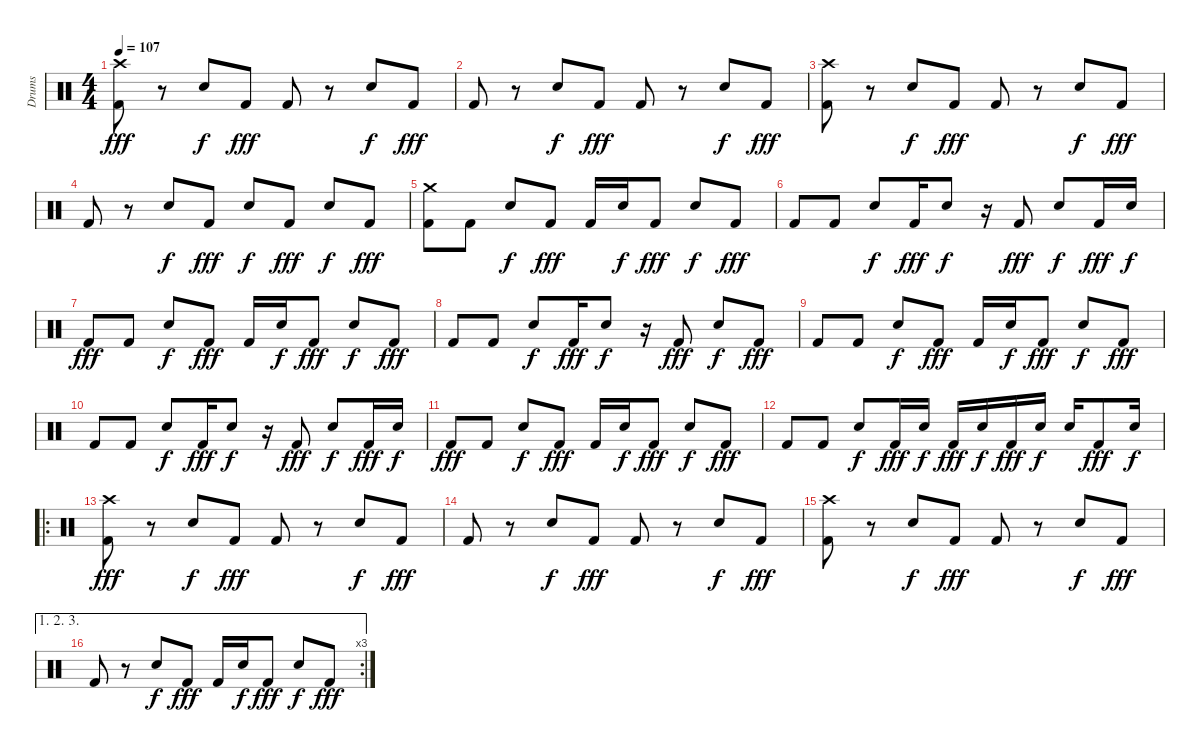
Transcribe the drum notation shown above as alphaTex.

\track ("Drums" "Drums") {instrument percussion}
\staff {score}
\articulation defaults
\ts (4 4)
\tempo 107
\clef neutral
\ks c
("Crash high (hit)" "Kick (hit) 2").8{dy fff} r.8 "Snare (hit) 2".8{dy f} "Kick (hit) 2".8{dy fff} "Kick (hit) 2".8 r.8 "Snare (hit) 2".8{dy f} "Kick (hit) 2".8{dy fff} |
"Kick (hit) 2".8 r.8 "Snare (hit) 2".8{dy f} "Kick (hit) 2".8{dy fff} "Kick (hit) 2".8 r.8 "Snare (hit) 2".8{dy f} "Kick (hit) 2".8{dy fff} |
("Crash high (hit)" "Kick (hit) 2").8 r.8 "Snare (hit) 2".8{dy f} "Kick (hit) 2".8{dy fff} "Kick (hit) 2".8 r.8 "Snare (hit) 2".8{dy f} "Kick (hit) 2".8{dy fff} |
"Kick (hit) 2".8 r.8 "Snare (hit) 2".8{dy f} "Kick (hit) 2".8{dy fff} "Snare (hit) 2".8{dy f} "Kick (hit) 2".8{dy fff} "Snare (hit) 2".8{dy f} "Kick (hit) 2".8{dy fff} |
("Crash medium (hit)" "Kick (hit) 2").8 "Kick (hit) 2".8 "Snare (hit) 2".8{dy f} "Kick (hit) 2".8{dy fff} "Kick (hit) 2".16 "Snare (hit) 2".16{dy f} "Kick (hit) 2".8{dy fff} "Snare (hit) 2".8{dy f} "Kick (hit) 2".8{dy fff} |
"Kick (hit) 2".8 "Kick (hit) 2".8 "Snare (hit) 2".8{dy f} "Kick (hit) 2".16{dy fff} "Snare (hit) 2".8{dy f} r.16 "Kick (hit) 2".8{dy fff} "Snare (hit) 2".8{dy f} "Kick (hit) 2".16{dy fff} "Snare (hit) 2".16{dy f} |
"Kick (hit) 2".8{dy fff} "Kick (hit) 2".8 "Snare (hit) 2".8{dy f} "Kick (hit) 2".8{dy fff} "Kick (hit) 2".16 "Snare (hit) 2".16{dy f} "Kick (hit) 2".8{dy fff} "Snare (hit) 2".8{dy f} "Kick (hit) 2".8{dy fff} |
"Kick (hit) 2".8 "Kick (hit) 2".8 "Snare (hit) 2".8{dy f} "Kick (hit) 2".16{dy fff} "Snare (hit) 2".8{dy f} r.16 "Kick (hit) 2".8{dy fff} "Snare (hit) 2".8{dy f} "Kick (hit) 2".8{dy fff} |
"Kick (hit) 2".8 "Kick (hit) 2".8 "Snare (hit) 2".8{dy f} "Kick (hit) 2".8{dy fff} "Kick (hit) 2".16 "Snare (hit) 2".16{dy f} "Kick (hit) 2".8{dy fff} "Snare (hit) 2".8{dy f} "Kick (hit) 2".8{dy fff} |
"Kick (hit) 2".8 "Kick (hit) 2".8 "Snare (hit) 2".8{dy f} "Kick (hit) 2".16{dy fff} "Snare (hit) 2".8{dy f} r.16 "Kick (hit) 2".8{dy fff} "Snare (hit) 2".8{dy f} "Kick (hit) 2".16{dy fff} "Snare (hit) 2".16{dy f} |
"Kick (hit) 2".8{dy fff} "Kick (hit) 2".8 "Snare (hit) 2".8{dy f} "Kick (hit) 2".8{dy fff} "Kick (hit) 2".16 "Snare (hit) 2".16{dy f} "Kick (hit) 2".8{dy fff} "Snare (hit) 2".8{dy f} "Kick (hit) 2".8{dy fff} |
"Kick (hit) 2".8 "Kick (hit) 2".8 "Snare (hit) 2".8{dy f} "Kick (hit) 2".16{dy fff} "Snare (hit) 2".16{dy f} "Kick (hit) 2".16{dy fff} "Snare (hit) 2".16{dy f} "Kick (hit) 2".16{dy fff} "Snare (hit) 2".16{dy f} "Snare (hit) 2".16 "Kick (hit) 2".8{dy fff} "Snare (hit) 2".16{dy f} |
\ro
("Crash high (hit)" "Kick (hit) 2").8{dy fff} r.8 "Snare (hit) 2".8{dy f} "Kick (hit) 2".8{dy fff} "Kick (hit) 2".8 r.8 "Snare (hit) 2".8{dy f} "Kick (hit) 2".8{dy fff} |
"Kick (hit) 2".8 r.8 "Snare (hit) 2".8{dy f} "Kick (hit) 2".8{dy fff} "Kick (hit) 2".8 r.8 "Snare (hit) 2".8{dy f} "Kick (hit) 2".8{dy fff} |
("Crash high (hit)" "Kick (hit) 2").8 r.8 "Snare (hit) 2".8{dy f} "Kick (hit) 2".8{dy fff} "Kick (hit) 2".8 r.8 "Snare (hit) 2".8{dy f} "Kick (hit) 2".8{dy fff} |
\ae (1 2 3)
\rc 3 "Kick (hit) 2".8
r.8 "Snare (hit) 2".8{dy f} "Kick (hit) 2".8{dy fff} "Kick (hit) 2".16 "Snare (hit) 2".16{dy f} "Kick (hit) 2".8{dy fff} "Snare (hit) 2".8{dy f} "Kick (hit) 2".8{dy fff}
